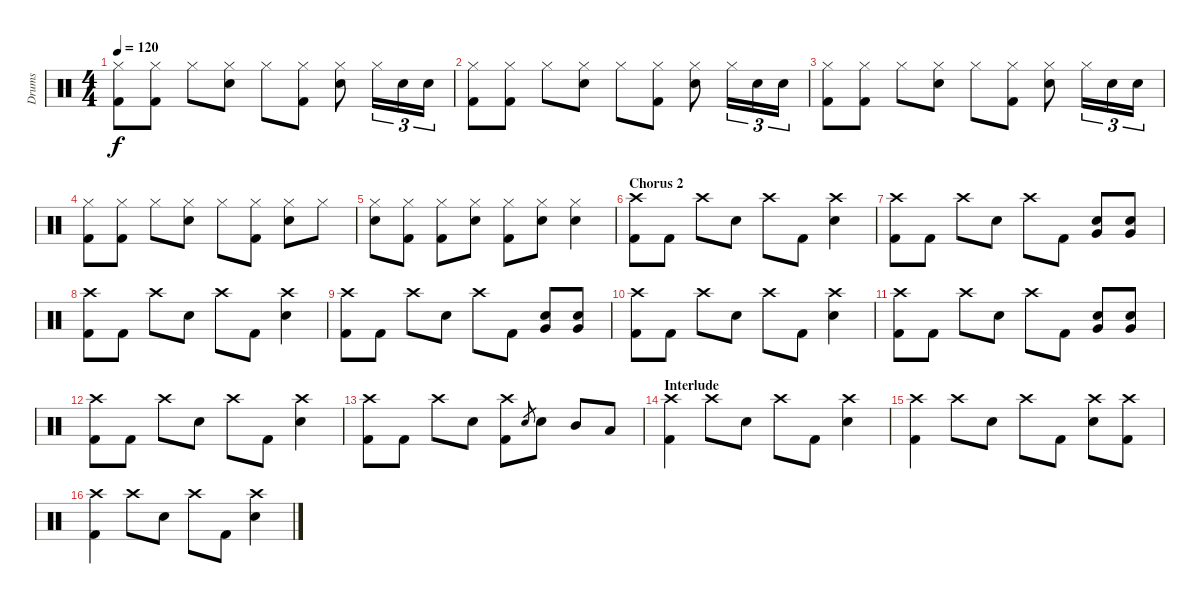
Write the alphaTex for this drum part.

\track ("Drums" "Drums") {instrument percussion}
\staff {score}
\articulation defaults
\ts (4 4)
\tempo 120
\clef neutral
\ks c
("Hi-Hat (closed)" "Kick (hit) 2").8{dy f} ("Hi-Hat (closed)" "Kick (hit) 2").8 "Hi-Hat (closed)".8 ("Hi-Hat (closed)" "Snare (hit) 2").8 "Hi-Hat (closed)".8 ("Hi-Hat (closed)" "Kick (hit) 2").8 ("Hi-Hat (closed)" "Snare (hit) 2").8 "Hi-Hat (closed)".16{tu (3 2)} "Snare (hit) 2".16{tu (3 2)} "Snare (hit) 2".16{tu (3 2)} |
("Hi-Hat (closed)" "Kick (hit) 2").8 ("Hi-Hat (closed)" "Kick (hit) 2").8 "Hi-Hat (closed)".8 ("Hi-Hat (closed)" "Snare (hit) 2").8 "Hi-Hat (closed)".8 ("Hi-Hat (closed)" "Kick (hit) 2").8 ("Hi-Hat (closed)" "Snare (hit) 2").8 "Hi-Hat (closed)".16{tu (3 2)} "Snare (hit) 2".16{tu (3 2)} "Snare (hit) 2".16{tu (3 2)} |
("Hi-Hat (closed)" "Kick (hit) 2").8 ("Hi-Hat (closed)" "Kick (hit) 2").8 "Hi-Hat (closed)".8 ("Hi-Hat (closed)" "Snare (hit) 2").8 "Hi-Hat (closed)".8 ("Hi-Hat (closed)" "Kick (hit) 2").8 ("Hi-Hat (closed)" "Snare (hit) 2").8 "Hi-Hat (closed)".16{tu (3 2)} "Snare (hit) 2".16{tu (3 2)} "Snare (hit) 2".16{tu (3 2)} |
("Hi-Hat (closed)" "Kick (hit) 2").8 ("Hi-Hat (closed)" "Kick (hit) 2").8 "Hi-Hat (closed)".8 ("Hi-Hat (closed)" "Snare (hit) 2").8 "Hi-Hat (closed)".8 ("Hi-Hat (closed)" "Kick (hit) 2").8 ("Hi-Hat (closed)" "Snare (hit) 2").8 "Hi-Hat (closed)".8 |
("Hi-Hat (closed)" "Snare (hit) 2").8 ("Hi-Hat (closed)" "Kick (hit) 2").8 ("Hi-Hat (closed)" "Kick (hit) 2").8 ("Hi-Hat (closed)" "Snare (hit) 2").8 ("Hi-Hat (closed)" "Kick (hit) 2").8 ("Hi-Hat (closed)" "Snare (hit) 2").8 ("Hi-Hat (closed)" "Snare (hit) 2").4 |
\section ("" "Chorus 2")
("Crash high (hit)" "Kick (hit) 2").8 "Kick (hit) 2".8 "Crash high (hit)".8 "Snare (hit) 2".8 "Crash high (hit)".8 "Kick (hit) 2".8 ("Crash high (hit)" "Snare (hit) 2").4 |
("Crash high (hit)" "Kick (hit) 2").8 "Kick (hit) 2".8 "Crash high (hit)".8 "Snare (hit) 2".8 "Crash high (hit)".8 "Kick (hit) 2".8 ("Snare (hit) 2" "Very Low Tom (hit)").8 ("Snare (hit) 2" "Very Low Tom (hit)").8 |
("Crash high (hit)" "Kick (hit) 2").8 "Kick (hit) 2".8 "Crash high (hit)".8 "Snare (hit) 2".8 "Crash high (hit)".8 "Kick (hit) 2".8 ("Crash high (hit)" "Snare (hit) 2").4 |
("Crash high (hit)" "Kick (hit) 2").8 "Kick (hit) 2".8 "Crash high (hit)".8 "Snare (hit) 2".8 "Crash high (hit)".8 "Kick (hit) 2".8 ("Snare (hit) 2" "Very Low Tom (hit)").8 ("Snare (hit) 2" "Very Low Tom (hit)").8 |
("Crash high (hit)" "Kick (hit) 2").8 "Kick (hit) 2".8 "Crash high (hit)".8 "Snare (hit) 2".8 "Crash high (hit)".8 "Kick (hit) 2".8 ("Crash high (hit)" "Snare (hit) 2").4 |
("Crash high (hit)" "Kick (hit) 2").8 "Kick (hit) 2".8 "Crash high (hit)".8 "Snare (hit) 2".8 "Crash high (hit)".8 "Kick (hit) 2".8 ("Snare (hit) 2" "Very Low Tom (hit)").8 ("Snare (hit) 2" "Very Low Tom (hit)").8 |
("Crash high (hit)" "Kick (hit) 2").8 "Kick (hit) 2".8 "Crash high (hit)".8 "Snare (hit) 2".8 "Crash high (hit)".8 "Kick (hit) 2".8 ("Crash high (hit)" "Snare (hit) 2").4 |
("Crash high (hit)" "Kick (hit) 2").8 "Kick (hit) 2".8 "Crash high (hit)".8 "Snare (hit) 2".8 ("Crash high (hit)" "Kick (hit) 2").8 "Snare (hit) 2".8{gr} "Snare (hit) 2".8 "Mid Tom (hit)".8 "Low Tom (hit)".8 |
\section ("" "Interlude")
("Crash high (hit)" "Kick (hit) 2").4 "Crash high (hit)".8 "Snare (hit) 2".8 "Crash high (hit)".8 "Kick (hit) 2".8 ("Crash high (hit)" "Snare (hit) 2").4 |
("Crash high (hit)" "Kick (hit) 2").4 "Crash high (hit)".8 "Snare (hit) 2".8 "Crash high (hit)".8 "Kick (hit) 2".8 ("Crash high (hit)" "Snare (hit) 2").8 ("Crash high (hit)" "Kick (hit) 2").8 |
("Crash high (hit)" "Kick (hit) 2").4 "Crash high (hit)".8 "Snare (hit) 2".8 "Crash high (hit)".8 "Kick (hit) 2".8 ("Crash high (hit)" "Snare (hit) 2").4
